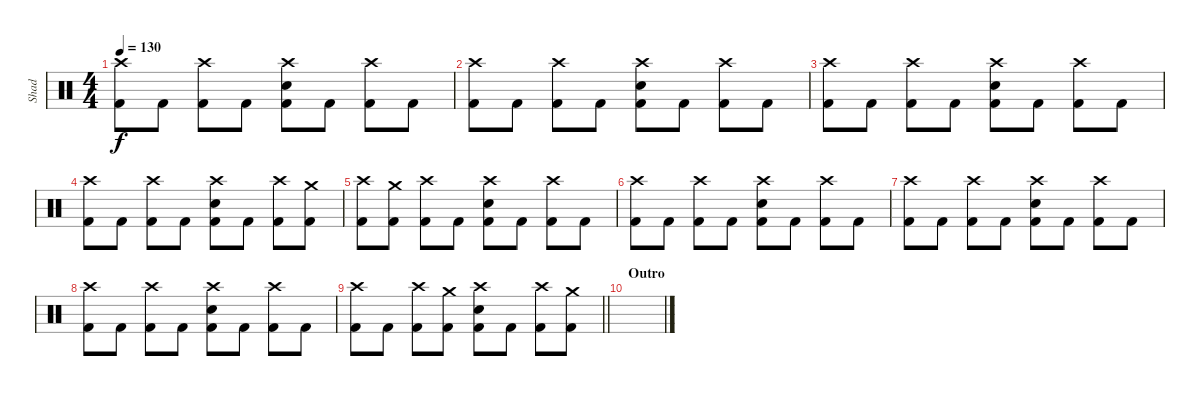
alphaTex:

\track ("Shad" "Shad") {instrument percussion}
\staff {score}
\articulation defaults
\ts (4 4)
\tempo 130
\clef neutral
\ks c
("Crash high (hit)" "Kick (hit) 2").8{dy f} "Kick (hit) 2".8 ("Crash high (hit)" "Kick (hit) 2").8 "Kick (hit) 2".8 ("Crash high (hit)" "Electric Snare (hit)" "Kick (hit) 2").8 "Kick (hit) 2".8 ("Crash high (hit)" "Kick (hit) 2").8 "Kick (hit) 2".8 |
("Crash high (hit)" "Kick (hit) 2").8 "Kick (hit) 2".8 ("Crash high (hit)" "Kick (hit) 2").8 "Kick (hit) 2".8 ("Crash high (hit)" "Electric Snare (hit)" "Kick (hit) 2").8 "Kick (hit) 2".8 ("Crash high (hit)" "Kick (hit) 2").8 "Kick (hit) 2".8 |
("Crash high (hit)" "Kick (hit) 2").8 "Kick (hit) 2".8 ("Crash high (hit)" "Kick (hit) 2").8 "Kick (hit) 2".8 ("Crash high (hit)" "Electric Snare (hit)" "Kick (hit) 2").8 "Kick (hit) 2".8 ("Crash high (hit)" "Kick (hit) 2").8 "Kick (hit) 2".8 |
("Crash high (hit)" "Kick (hit) 2").8 "Kick (hit) 2".8 ("Crash high (hit)" "Kick (hit) 2").8 "Kick (hit) 2".8 ("Crash high (hit)" "Electric Snare (hit)" "Kick (hit) 2").8 "Kick (hit) 2".8 ("Crash high (hit)" "Kick (hit) 2").8 ("Crash medium (hit)" "Kick (hit) 2").8 |
("Crash high (hit)" "Kick (hit) 2").8 ("Crash medium (hit)" "Kick (hit) 2").8 ("Crash high (hit)" "Kick (hit) 2").8 "Kick (hit) 2".8 ("Crash high (hit)" "Electric Snare (hit)" "Kick (hit) 2").8 "Kick (hit) 2".8 ("Crash high (hit)" "Kick (hit) 2").8 "Kick (hit) 2".8 |
("Crash high (hit)" "Kick (hit) 2").8 "Kick (hit) 2".8 ("Crash high (hit)" "Kick (hit) 2").8 "Kick (hit) 2".8 ("Crash high (hit)" "Electric Snare (hit)" "Kick (hit) 2").8 "Kick (hit) 2".8 ("Crash high (hit)" "Kick (hit) 2").8 "Kick (hit) 2".8 |
("Crash high (hit)" "Kick (hit) 2").8 "Kick (hit) 2".8 ("Crash high (hit)" "Kick (hit) 2").8 "Kick (hit) 2".8 ("Crash high (hit)" "Electric Snare (hit)" "Kick (hit) 2").8 "Kick (hit) 2".8 ("Crash high (hit)" "Kick (hit) 2").8 "Kick (hit) 2".8 |
("Crash high (hit)" "Kick (hit) 2").8 "Kick (hit) 2".8 ("Crash high (hit)" "Kick (hit) 2").8 "Kick (hit) 2".8 ("Crash high (hit)" "Electric Snare (hit)" "Kick (hit) 2").8 "Kick (hit) 2".8 ("Crash high (hit)" "Kick (hit) 2").8 "Kick (hit) 2".8 |
\barLineRight lightlight
("Crash high (hit)" "Kick (hit) 2").8 "Kick (hit) 2".8 ("Crash high (hit)" "Kick (hit) 2").8 ("Crash medium (hit)" "Kick (hit) 2").8 ("Crash high (hit)" "Electric Snare (hit)" "Kick (hit) 2").8 "Kick (hit) 2".8 ("Crash high (hit)" "Kick (hit) 2").8 ("Crash medium (hit)" "Kick (hit) 2").8 |
\section ("" "Outro")
